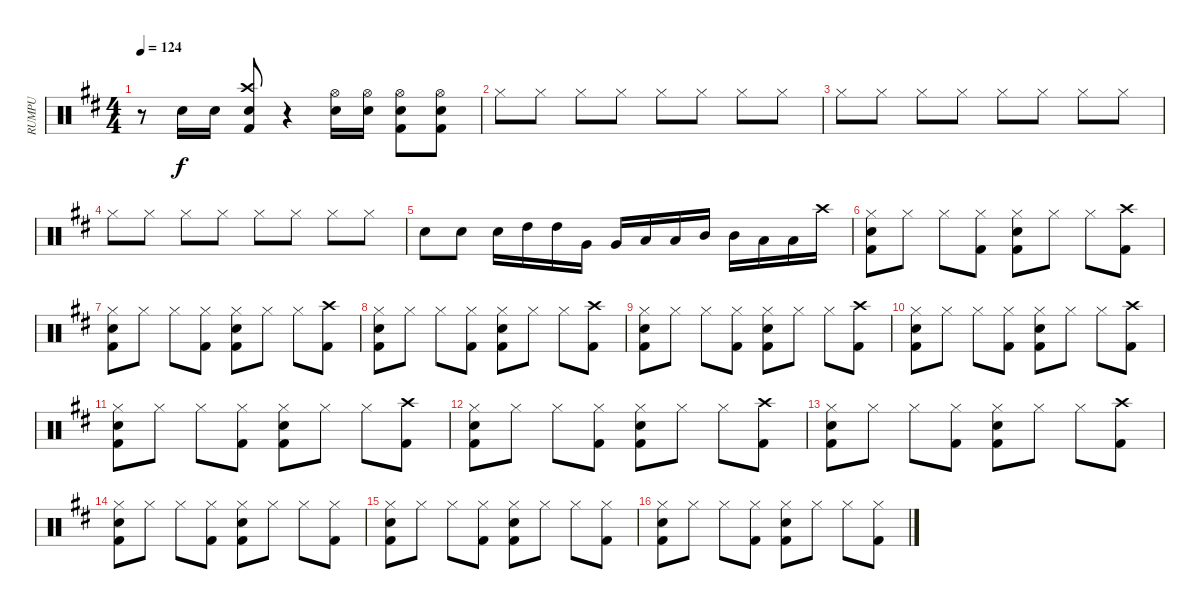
\track ("RUMPU" "RUMPU") {instrument percussion}
\staff {score}
\articulation defaults
\ts (4 4)
\tempo 124
\clef neutral
\ks d
r.8{dy f} "Electric Snare (hit)".16 "Electric Snare (hit)".16 ("Crash high (hit)" "Electric Snare (hit)" "Kick (hit) 2").8 r.4 ("Hi-Hat (open)" "Electric Snare (hit)").16 ("Hi-Hat (open)" "Electric Snare (hit)").16 ("Hi-Hat (open)" "Electric Snare (hit)" "Kick (hit) 2").8 ("Hi-Hat (open)" "Electric Snare (hit)" "Kick (hit) 2").8 |
"Hi-Hat (closed)".8 "Hi-Hat (closed)".8 "Hi-Hat (closed)".8 "Hi-Hat (closed)".8 "Hi-Hat (closed)".8 "Hi-Hat (closed)".8 "Hi-Hat (closed)".8 "Hi-Hat (closed)".8 |
"Hi-Hat (closed)".8 "Hi-Hat (closed)".8 "Hi-Hat (closed)".8 "Hi-Hat (closed)".8 "Hi-Hat (closed)".8 "Hi-Hat (closed)".8 "Hi-Hat (closed)".8 "Hi-Hat (closed)".8 |
"Hi-Hat (closed)".8 "Hi-Hat (closed)".8 "Hi-Hat (closed)".8 "Hi-Hat (closed)".8 "Hi-Hat (closed)".8 "Hi-Hat (closed)".8 "Hi-Hat (closed)".8 "Hi-Hat (closed)".8 |
"Electric Snare (hit)".8 "Electric Snare (hit)".8 "Electric Snare (hit)".16 "High Tom (hit)".16 "High Tom (hit)".16 "Very Low Tom (hit)".16 "Very Low Tom (hit)".16 "Low Tom (hit)".16 "Low Tom (hit)".16 "Mid Tom (hit)".16 "Mid Tom (hit)".16 "Low Floor Tom (hit)".16 "Low Floor Tom (hit)".16 "Crash high (hit)".16 |
("Hi-Hat (closed)" "Kick (hit) 2" "Electric Snare (hit)").8 "Hi-Hat (closed)".8 "Hi-Hat (closed)".8 ("Hi-Hat (closed)" "Kick (hit) 2").8 ("Hi-Hat (closed)" "Kick (hit) 2" "Electric Snare (hit)").8 "Hi-Hat (closed)".8 "Hi-Hat (closed)".8 ("Crash high (hit)" "Kick (hit) 2").8 |
("Hi-Hat (closed)" "Kick (hit) 2" "Electric Snare (hit)").8 "Hi-Hat (closed)".8 "Hi-Hat (closed)".8 ("Hi-Hat (closed)" "Kick (hit) 2").8 ("Hi-Hat (closed)" "Kick (hit) 2" "Electric Snare (hit)").8 "Hi-Hat (closed)".8 "Hi-Hat (closed)".8 ("Crash high (hit)" "Kick (hit) 2").8 |
("Hi-Hat (closed)" "Kick (hit) 2" "Electric Snare (hit)").8 "Hi-Hat (closed)".8 "Hi-Hat (closed)".8 ("Hi-Hat (closed)" "Kick (hit) 2").8 ("Hi-Hat (closed)" "Kick (hit) 2" "Electric Snare (hit)").8 "Hi-Hat (closed)".8 "Hi-Hat (closed)".8 ("Crash high (hit)" "Kick (hit) 2").8 |
("Hi-Hat (closed)" "Kick (hit) 2" "Electric Snare (hit)").8 "Hi-Hat (closed)".8 "Hi-Hat (closed)".8 ("Hi-Hat (closed)" "Kick (hit) 2").8 ("Hi-Hat (closed)" "Kick (hit) 2" "Electric Snare (hit)").8 "Hi-Hat (closed)".8 "Hi-Hat (closed)".8 ("Crash high (hit)" "Kick (hit) 2").8 |
("Hi-Hat (closed)" "Kick (hit) 2" "Electric Snare (hit)").8 "Hi-Hat (closed)".8 "Hi-Hat (closed)".8 ("Hi-Hat (closed)" "Kick (hit) 2").8 ("Hi-Hat (closed)" "Kick (hit) 2" "Electric Snare (hit)").8 "Hi-Hat (closed)".8 "Hi-Hat (closed)".8 ("Crash high (hit)" "Kick (hit) 2").8 |
("Hi-Hat (closed)" "Kick (hit) 2" "Electric Snare (hit)").8 "Hi-Hat (closed)".8 "Hi-Hat (closed)".8 ("Hi-Hat (closed)" "Kick (hit) 2").8 ("Hi-Hat (closed)" "Kick (hit) 2" "Electric Snare (hit)").8 "Hi-Hat (closed)".8 "Hi-Hat (closed)".8 ("Crash high (hit)" "Kick (hit) 2").8 |
("Hi-Hat (closed)" "Kick (hit) 2" "Electric Snare (hit)").8 "Hi-Hat (closed)".8 "Hi-Hat (closed)".8 ("Hi-Hat (closed)" "Kick (hit) 2").8 ("Hi-Hat (closed)" "Kick (hit) 2" "Electric Snare (hit)").8 "Hi-Hat (closed)".8 "Hi-Hat (closed)".8 ("Crash high (hit)" "Kick (hit) 2").8 |
("Hi-Hat (closed)" "Kick (hit) 2" "Electric Snare (hit)").8 "Hi-Hat (closed)".8 "Hi-Hat (closed)".8 ("Hi-Hat (closed)" "Kick (hit) 2").8 ("Hi-Hat (closed)" "Kick (hit) 2" "Electric Snare (hit)").8 "Hi-Hat (closed)".8 "Hi-Hat (closed)".8 ("Crash high (hit)" "Kick (hit) 2").8 |
("Hi-Hat (closed)" "Kick (hit) 2" "Electric Snare (hit)").8 "Hi-Hat (closed)".8 "Hi-Hat (closed)".8 ("Hi-Hat (closed)" "Kick (hit) 2").8 ("Hi-Hat (closed)" "Kick (hit) 2" "Electric Snare (hit)").8 "Hi-Hat (closed)".8 "Hi-Hat (closed)".8 ("Hi-Hat (closed)" "Kick (hit) 2").8 |
("Hi-Hat (closed)" "Kick (hit) 2" "Electric Snare (hit)").8 "Hi-Hat (closed)".8 "Hi-Hat (closed)".8 ("Hi-Hat (closed)" "Kick (hit) 2").8 ("Hi-Hat (closed)" "Kick (hit) 2" "Electric Snare (hit)").8 "Hi-Hat (closed)".8 "Hi-Hat (closed)".8 ("Hi-Hat (closed)" "Kick (hit) 2").8 |
("Hi-Hat (closed)" "Kick (hit) 2" "Electric Snare (hit)").8 "Hi-Hat (closed)".8 "Hi-Hat (closed)".8 ("Hi-Hat (closed)" "Kick (hit) 2").8 ("Hi-Hat (closed)" "Kick (hit) 2" "Electric Snare (hit)").8 "Hi-Hat (closed)".8 "Hi-Hat (closed)".8 ("Hi-Hat (closed)" "Kick (hit) 2").8
